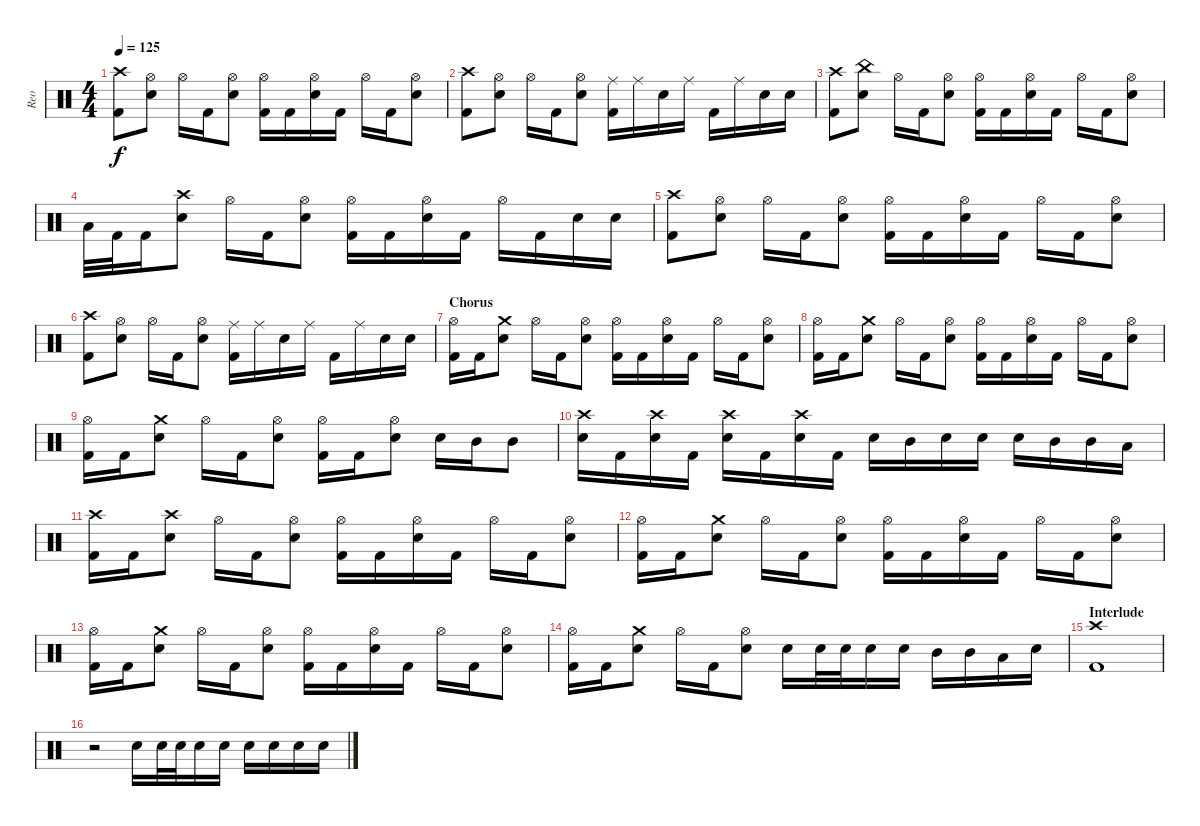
\track ("Reo" "Reo") {instrument percussion}
\staff {score}
\articulation defaults
\ts (4 4)
\tempo 125
\clef neutral
\ks c
("Crash high (hit)" "Kick (hit) 2").8{dy f} ("Hi-Hat (open)" "Electric Snare (hit)").8 "Hi-Hat (open)".16 "Kick (hit) 2".16 ("Hi-Hat (open)" "Electric Snare (hit)").8 ("Hi-Hat (open)" "Kick (hit) 2").16 "Kick (hit) 2".16 ("Hi-Hat (open)" "Electric Snare (hit)").16 "Kick (hit) 2".16 "Hi-Hat (open)".16 "Kick (hit) 2".16 ("Hi-Hat (open)" "Electric Snare (hit)").8 |
("Crash high (hit)" "Kick (hit) 2").8 ("Hi-Hat (open)" "Electric Snare (hit)").8 "Hi-Hat (open)".16 "Kick (hit) 2".16 ("Hi-Hat (open)" "Electric Snare (hit)").8 ("Ride (middle)" "Kick (hit) 2").16 "Ride (middle)".16 "Electric Snare (hit)".16 "Ride (middle)".16 "Kick (hit) 2".16 "Ride (middle)".16 "Electric Snare (hit)".16 "Electric Snare (hit)".16 |
("Crash high (hit)" "Kick (hit) 2").8 ("China (hit)" "Electric Snare (hit)").8 "Hi-Hat (open)".16 "Kick (hit) 2".16 ("Hi-Hat (open)" "Electric Snare (hit)").8 ("Hi-Hat (open)" "Kick (hit) 2").16 "Kick (hit) 2".16 ("Hi-Hat (open)" "Electric Snare (hit)").16 "Kick (hit) 2".16 "Hi-Hat (open)".16 "Kick (hit) 2".16 ("Hi-Hat (open)" "Electric Snare (hit)").8 |
"Low Tom (hit)".32 "Kick (hit) 2".32 "Kick (hit) 2".16 ("Crash high (hit)" "Electric Snare (hit)").8 "Hi-Hat (open)".16 "Kick (hit) 2".16 ("Hi-Hat (open)" "Electric Snare (hit)").8 ("Hi-Hat (open)" "Kick (hit) 2").16 "Kick (hit) 2".16 ("Hi-Hat (open)" "Electric Snare (hit)").16 "Kick (hit) 2".16 "Hi-Hat (open)".16 "Kick (hit) 2".16 "Electric Snare (hit)".16 "Electric Snare (hit)".16 |
("Crash high (hit)" "Kick (hit) 2").8 ("Hi-Hat (open)" "Electric Snare (hit)").8 "Hi-Hat (open)".16 "Kick (hit) 2".16 ("Hi-Hat (open)" "Electric Snare (hit)").8 ("Hi-Hat (open)" "Kick (hit) 2").16 "Kick (hit) 2".16 ("Hi-Hat (open)" "Electric Snare (hit)").16 "Kick (hit) 2".16 "Hi-Hat (open)".16 "Kick (hit) 2".16 ("Hi-Hat (open)" "Electric Snare (hit)").8 |
("Crash high (hit)" "Kick (hit) 2").8 ("Hi-Hat (open)" "Electric Snare (hit)").8 "Hi-Hat (open)".16 "Kick (hit) 2".16 ("Hi-Hat (open)" "Electric Snare (hit)").8 ("Ride (middle)" "Kick (hit) 2").16 "Ride (middle)".16 "Electric Snare (hit)".16 "Ride (middle)".16 "Kick (hit) 2".16 "Ride (middle)".16 "Electric Snare (hit)".16 "Electric Snare (hit)".16 |
\section ("" "Chorus")
("Hi-Hat (open)" "Kick (hit) 2").16 "Kick (hit) 2".16 ("Crash medium (hit)" "Electric Snare (hit)").8 "Hi-Hat (open)".16 "Kick (hit) 2".16 ("Hi-Hat (open)" "Electric Snare (hit)").8 ("Hi-Hat (open)" "Kick (hit) 2").16 "Kick (hit) 2".16 ("Hi-Hat (open)" "Electric Snare (hit)").16 "Kick (hit) 2".16 "Hi-Hat (open)".16 "Kick (hit) 2".16 ("Hi-Hat (open)" "Electric Snare (hit)").8 |
("Hi-Hat (open)" "Kick (hit) 2").16 "Kick (hit) 2".16 ("Crash medium (hit)" "Electric Snare (hit)").8 "Hi-Hat (open)".16 "Kick (hit) 2".16 ("Hi-Hat (open)" "Electric Snare (hit)").8 ("Hi-Hat (open)" "Kick (hit) 2").16 "Kick (hit) 2".16 ("Hi-Hat (open)" "Electric Snare (hit)").16 "Kick (hit) 2".16 "Hi-Hat (open)".16 "Kick (hit) 2".16 ("Hi-Hat (open)" "Electric Snare (hit)").8 |
("Hi-Hat (open)" "Kick (hit) 2").16 "Kick (hit) 2".16 ("Crash medium (hit)" "Electric Snare (hit)").8 "Hi-Hat (open)".16 "Kick (hit) 2".16 ("Hi-Hat (open)" "Electric Snare (hit)").8 ("Hi-Hat (open)" "Kick (hit) 2").16 "Kick (hit) 2".16 ("Hi-Hat (open)" "Electric Snare (hit)").8 "Electric Snare (hit)".16 "Mid Tom (hit)".16 "Mid Tom (hit)".8 |
("Crash high (hit)" "Electric Snare (hit)").16 "Kick (hit) 2".16 ("Crash high (hit)" "Electric Snare (hit)").16 "Kick (hit) 2".16 ("Crash high (hit)" "Electric Snare (hit)").16 "Kick (hit) 2".16 ("Crash high (hit)" "Electric Snare (hit)").16 "Kick (hit) 2".16 "Electric Snare (hit)".16 "Mid Tom (hit)".16 "Electric Snare (hit)".16 "Electric Snare (hit)".16 "Electric Snare (hit)".16 "Mid Tom (hit)".16 "Mid Tom (hit)".16 "Low Tom (hit)".16 |
("Crash high (hit)" "Kick (hit) 2").16 "Kick (hit) 2".16 ("Crash high (hit)" "Electric Snare (hit)").8 "Hi-Hat (open)".16 "Kick (hit) 2".16 ("Hi-Hat (open)" "Electric Snare (hit)").8 ("Hi-Hat (open)" "Kick (hit) 2").16 "Kick (hit) 2".16 ("Hi-Hat (open)" "Electric Snare (hit)").16 "Kick (hit) 2".16 "Hi-Hat (open)".16 "Kick (hit) 2".16 ("Hi-Hat (open)" "Electric Snare (hit)").8 |
("Hi-Hat (open)" "Kick (hit) 2").16 "Kick (hit) 2".16 ("Crash medium (hit)" "Electric Snare (hit)").8 "Hi-Hat (open)".16 "Kick (hit) 2".16 ("Hi-Hat (open)" "Electric Snare (hit)").8 ("Hi-Hat (open)" "Kick (hit) 2").16 "Kick (hit) 2".16 ("Hi-Hat (open)" "Electric Snare (hit)").16 "Kick (hit) 2".16 "Hi-Hat (open)".16 "Kick (hit) 2".16 ("Hi-Hat (open)" "Electric Snare (hit)").8 |
("Hi-Hat (open)" "Kick (hit) 2").16 "Kick (hit) 2".16 ("Crash medium (hit)" "Electric Snare (hit)").8 "Hi-Hat (open)".16 "Kick (hit) 2".16 ("Hi-Hat (open)" "Electric Snare (hit)").8 ("Hi-Hat (open)" "Kick (hit) 2").16 "Kick (hit) 2".16 ("Hi-Hat (open)" "Electric Snare (hit)").16 "Kick (hit) 2".16 "Hi-Hat (open)".16 "Kick (hit) 2".16 ("Hi-Hat (open)" "Electric Snare (hit)").8 |
("Hi-Hat (open)" "Kick (hit) 2").16 "Kick (hit) 2".16 ("Crash medium (hit)" "Electric Snare (hit)").8 "Hi-Hat (open)".16 "Kick (hit) 2".16 ("Hi-Hat (open)" "Electric Snare (hit)").8 "Electric Snare (hit)".16 "Electric Snare (hit)".32 "Electric Snare (hit)".32 "Electric Snare (hit)".16 "Electric Snare (hit)".16 "Mid Tom (hit)".16 "Mid Tom (hit)".16 "Low Tom (hit)".16 "Electric Snare (hit)".16 |
\section ("" "Interlude")
("Crash high (hit)" "Kick (hit) 2").1 |
r.2 "Electric Snare (hit)".16 "Electric Snare (hit)".32 "Electric Snare (hit)".32 "Electric Snare (hit)".16 "Electric Snare (hit)".16 "Electric Snare (hit)".16 "Electric Snare (hit)".16 "Electric Snare (hit)".16 "Electric Snare (hit)".16
